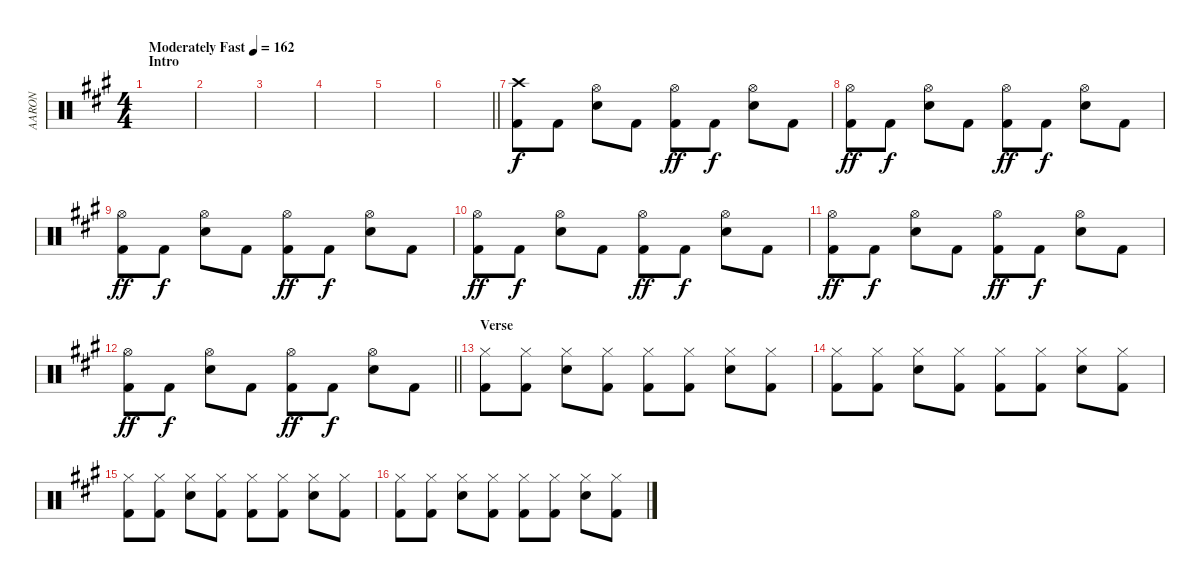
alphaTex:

\track ("AARON" "AARON") {instrument percussion}
\staff {score}
\articulation defaults
\ts (4 4)
\section ("" "Intro")
\tempo (162 "Moderately Fast")
\clef neutral
\ks a
|
|
|
|
|
\barLineRight lightlight
|
("Crash high (hit)" "Kick (hit) 2").8 "Kick (hit) 2".8 ("Hi-Hat (open)" "Electric Snare (hit)").8 "Kick (hit) 2".8 ("Hi-Hat (open)" "Kick (hit) 2").8{dy ff} "Kick (hit) 2".8{dy f} ("Hi-Hat (open)" "Electric Snare (hit)").8 "Kick (hit) 2".8 |
("Hi-Hat (open)" "Kick (hit) 2").8{dy ff} "Kick (hit) 2".8{dy f} ("Hi-Hat (open)" "Electric Snare (hit)").8 "Kick (hit) 2".8 ("Hi-Hat (open)" "Kick (hit) 2").8{dy ff} "Kick (hit) 2".8{dy f} ("Hi-Hat (open)" "Electric Snare (hit)").8 "Kick (hit) 2".8 |
("Hi-Hat (open)" "Kick (hit) 2").8{dy ff} "Kick (hit) 2".8{dy f} ("Hi-Hat (open)" "Electric Snare (hit)").8 "Kick (hit) 2".8 ("Hi-Hat (open)" "Kick (hit) 2").8{dy ff} "Kick (hit) 2".8{dy f} ("Hi-Hat (open)" "Electric Snare (hit)").8 "Kick (hit) 2".8 |
("Hi-Hat (open)" "Kick (hit) 2").8{dy ff} "Kick (hit) 2".8{dy f} ("Hi-Hat (open)" "Electric Snare (hit)").8 "Kick (hit) 2".8 ("Hi-Hat (open)" "Kick (hit) 2").8{dy ff} "Kick (hit) 2".8{dy f} ("Hi-Hat (open)" "Electric Snare (hit)").8 "Kick (hit) 2".8 |
("Hi-Hat (open)" "Kick (hit) 2").8{dy ff} "Kick (hit) 2".8{dy f} ("Hi-Hat (open)" "Electric Snare (hit)").8 "Kick (hit) 2".8 ("Hi-Hat (open)" "Kick (hit) 2").8{dy ff} "Kick (hit) 2".8{dy f} ("Hi-Hat (open)" "Electric Snare (hit)").8 "Kick (hit) 2".8 |
\barLineRight lightlight
("Hi-Hat (open)" "Kick (hit) 2").8{dy ff} "Kick (hit) 2".8{dy f} ("Hi-Hat (open)" "Electric Snare (hit)").8 "Kick (hit) 2".8 ("Hi-Hat (open)" "Kick (hit) 2").8{dy ff} "Kick (hit) 2".8{dy f} ("Hi-Hat (open)" "Electric Snare (hit)").8 "Kick (hit) 2".8 |
\section ("" "Verse")
("Hi-Hat (closed)" "Kick (hit) 2").8 ("Hi-Hat (closed)" "Kick (hit) 2").8 ("Hi-Hat (closed)" "Electric Snare (hit)").8 ("Hi-Hat (closed)" "Kick (hit) 2").8 ("Hi-Hat (closed)" "Kick (hit) 2").8 ("Hi-Hat (closed)" "Kick (hit) 2").8 ("Hi-Hat (closed)" "Electric Snare (hit)").8 ("Hi-Hat (closed)" "Kick (hit) 2").8 |
("Hi-Hat (closed)" "Kick (hit) 2").8 ("Hi-Hat (closed)" "Kick (hit) 2").8 ("Hi-Hat (closed)" "Electric Snare (hit)").8 ("Hi-Hat (closed)" "Kick (hit) 2").8 ("Hi-Hat (closed)" "Kick (hit) 2").8 ("Hi-Hat (closed)" "Kick (hit) 2").8 ("Hi-Hat (closed)" "Electric Snare (hit)").8 ("Hi-Hat (closed)" "Kick (hit) 2").8 |
("Hi-Hat (closed)" "Kick (hit) 2").8 ("Hi-Hat (closed)" "Kick (hit) 2").8 ("Hi-Hat (closed)" "Electric Snare (hit)").8 ("Hi-Hat (closed)" "Kick (hit) 2").8 ("Hi-Hat (closed)" "Kick (hit) 2").8 ("Hi-Hat (closed)" "Kick (hit) 2").8 ("Hi-Hat (closed)" "Electric Snare (hit)").8 ("Hi-Hat (closed)" "Kick (hit) 2").8 |
("Hi-Hat (closed)" "Kick (hit) 2").8 ("Hi-Hat (closed)" "Kick (hit) 2").8 ("Hi-Hat (closed)" "Electric Snare (hit)").8 ("Hi-Hat (closed)" "Kick (hit) 2").8 ("Hi-Hat (closed)" "Kick (hit) 2").8 ("Hi-Hat (closed)" "Kick (hit) 2").8 ("Hi-Hat (closed)" "Electric Snare (hit)").8 ("Hi-Hat (closed)" "Kick (hit) 2").8
